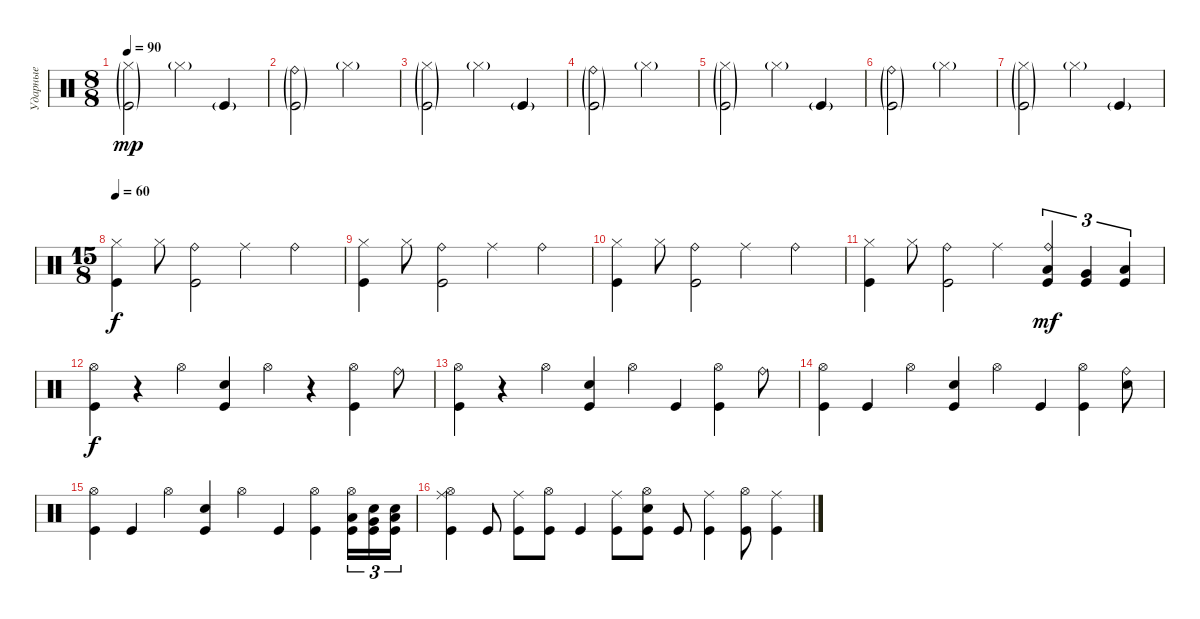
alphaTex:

\track ("Ударные" "Ударные") {instrument percussion}
\staff {score}
\articulation defaults
\ts (8 8)
\tempo 90
\clef neutral
\ks c
("Kick (hit)"{g} "Hi-Hat (closed)"{g}).2{dy mp} "Hi-Hat (closed)"{g}.4 "Kick (hit)"{g}.4 |
("Kick (hit)"{g} "Ride (bell)"{g}).2 "Hi-Hat (closed)"{g}.2 |
("Kick (hit)"{g} "Hi-Hat (closed)"{g}).2 "Hi-Hat (closed)"{g}.4 "Kick (hit)"{g}.4 |
("Kick (hit)"{g} "Ride (bell)"{g}).2 "Hi-Hat (closed)"{g}.2 |
("Kick (hit)"{g} "Hi-Hat (closed)"{g}).2 "Hi-Hat (closed)"{g}.4 "Kick (hit)"{g}.4 |
("Kick (hit)"{g} "Ride (bell)"{g}).2 "Hi-Hat (closed)"{g}.2 |
("Kick (hit)"{g} "Hi-Hat (closed)"{g}).2 "Hi-Hat (closed)"{g}.4 "Kick (hit)"{g}.4 |
\ts (15 8)
\tempo 60
("Hi-Hat (closed)" "Kick (hit)").4{dy f} "Hi-Hat (closed)".8 ("Kick (hit)" "Ride (bell)").2 "Ride (middle)".2 "Ride (bell)".2 |
("Hi-Hat (closed)" "Kick (hit)").4 "Hi-Hat (closed)".8 ("Kick (hit)" "Ride (bell)").2 "Ride (middle)".2 "Ride (bell)".2 |
("Hi-Hat (closed)" "Kick (hit)").4 "Hi-Hat (closed)".8 ("Kick (hit)" "Ride (bell)").2 "Ride (middle)".2 "Ride (bell)".2 |
("Hi-Hat (closed)" "Kick (hit)").4 "Hi-Hat (closed)".8 ("Kick (hit)" "Ride (bell)").2 "Ride (middle)".2 ("Low Tom (hit)" "Ride (bell)" "Kick (hit)").4{tu (3 2) dy mf} ("Very Low Tom (hit)" "Kick (hit)").4{tu (3 2)} ("Low Floor Tom (hit)" "Kick (hit)").4{tu (3 2)} |
("Hi-Hat (open)" "Kick (hit)").4{dy f} r.4 "Hi-Hat (open)".4 ("Snare (hit) 2" "Kick (hit)").4 "Hi-Hat (open)".4 r.4 ("Hi-Hat (open)" "Kick (hit)").4 "Ride (bell)".8 |
("Hi-Hat (open)" "Kick (hit)").4 r.4 "Hi-Hat (open)".4 ("Snare (hit) 2" "Kick (hit)").4 "Hi-Hat (open)".4 "Kick (hit)".4 ("Hi-Hat (open)" "Kick (hit)").4 "Ride (bell)".8 |
("Hi-Hat (open)" "Kick (hit)").4 "Kick (hit)".4 "Hi-Hat (open)".4 ("Snare (hit) 2" "Kick (hit)").4 "Hi-Hat (open)".4 "Kick (hit)".4 ("Hi-Hat (open)" "Kick (hit)").4 ("Ride (bell)" "Snare (hit) 2").8 |
("Hi-Hat (open)" "Kick (hit)").4 "Kick (hit)".4 "Hi-Hat (open)".4 ("Snare (hit) 2" "Kick (hit)").4 "Hi-Hat (open)".4 "Kick (hit)".4 ("Hi-Hat (open)" "Kick (hit)").4 ("Hi-Hat (open)" "Kick (hit)" "Low Tom (hit)").16{tu (3 2)} ("Snare (hit) 2" "Very Low Tom (hit)" "Kick (hit)").16{tu (3 2)} ("Snare (hit) 2" "Low Floor Tom (hit)" "Kick (hit)").16{tu (3 2)} |
("Ride (middle)" "Hi-Hat (open)" "Kick (hit)").4 "Kick (hit)".8 ("Ride (middle)" "Kick (hit)").8 ("Hi-Hat (open)" "Kick (hit)").8 "Kick (hit)".4 ("Ride (middle)" "Kick (hit)").8 ("Hi-Hat (open)" "Snare (hit) 2" "Kick (hit)").8 "Kick (hit)".8 ("Ride (middle)" "Kick (hit)").4 ("Hi-Hat (open)" "Kick (hit)").8 ("Ride (middle)" "Kick (hit)").4
